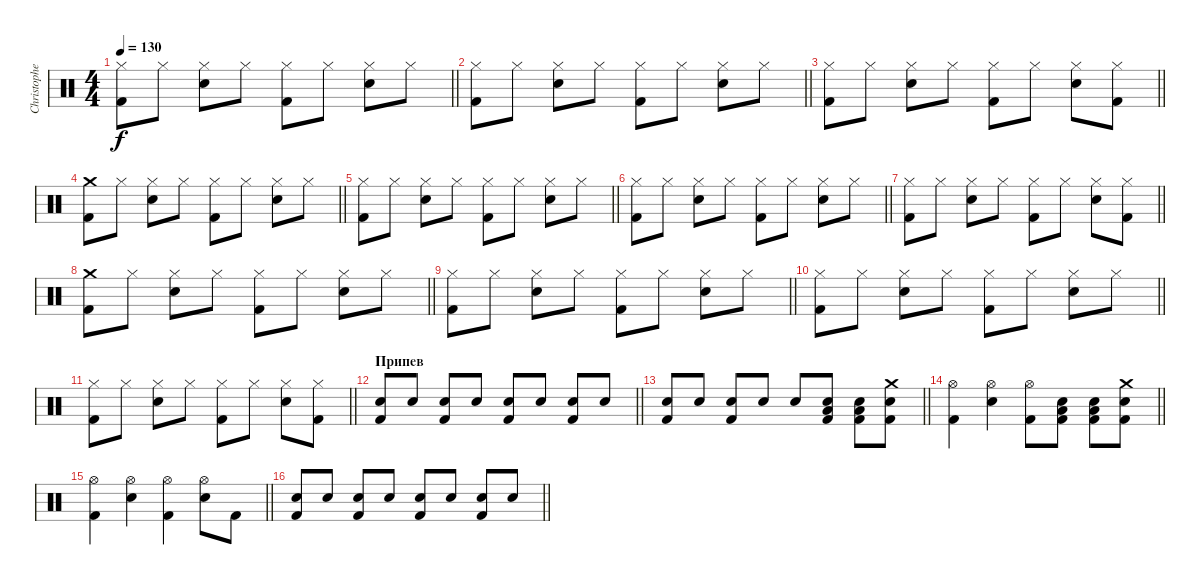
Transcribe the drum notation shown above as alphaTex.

\track ("Christopher Schneider" "Christophe") {instrument percussion}
\staff {score}
\articulation defaults
\ts (4 4)
\tempo 130
\clef neutral
\barLineRight lightlight
\ks c
("Hi-Hat (closed)" "Kick (hit) 2").8{dy f} "Hi-Hat (closed)".8 ("Hi-Hat (closed)" "Electric Snare (hit)").8 "Hi-Hat (closed)".8 ("Hi-Hat (closed)" "Kick (hit) 2").8 "Hi-Hat (closed)".8 ("Hi-Hat (closed)" "Electric Snare (hit)").8 "Hi-Hat (closed)".8 |
\barLineRight lightlight
("Hi-Hat (closed)" "Kick (hit) 2").8 "Hi-Hat (closed)".8 ("Hi-Hat (closed)" "Electric Snare (hit)").8 "Hi-Hat (closed)".8 ("Hi-Hat (closed)" "Kick (hit) 2").8 "Hi-Hat (closed)".8 ("Hi-Hat (closed)" "Electric Snare (hit)").8 "Hi-Hat (closed)".8 |
\barLineRight lightlight
("Hi-Hat (closed)" "Kick (hit) 2").8 "Hi-Hat (closed)".8 ("Hi-Hat (closed)" "Electric Snare (hit)").8 "Hi-Hat (closed)".8 ("Hi-Hat (closed)" "Kick (hit) 2").8 "Hi-Hat (closed)".8 ("Hi-Hat (closed)" "Electric Snare (hit)").8 ("Hi-Hat (closed)" "Kick (hit) 2").8 |
\barLineRight lightlight
("Crash medium (hit)" "Kick (hit) 2").8 "Hi-Hat (closed)".8 ("Hi-Hat (closed)" "Electric Snare (hit)").8 "Hi-Hat (closed)".8 ("Hi-Hat (closed)" "Kick (hit) 2").8 "Hi-Hat (closed)".8 ("Hi-Hat (closed)" "Electric Snare (hit)").8 "Hi-Hat (closed)".8 |
\barLineRight lightlight
("Hi-Hat (closed)" "Kick (hit) 2").8 "Hi-Hat (closed)".8 ("Hi-Hat (closed)" "Electric Snare (hit)").8 "Hi-Hat (closed)".8 ("Hi-Hat (closed)" "Kick (hit) 2").8 "Hi-Hat (closed)".8 ("Hi-Hat (closed)" "Electric Snare (hit)").8 "Hi-Hat (closed)".8 |
\barLineRight lightlight
("Hi-Hat (closed)" "Kick (hit) 2").8 "Hi-Hat (closed)".8 ("Hi-Hat (closed)" "Electric Snare (hit)").8 "Hi-Hat (closed)".8 ("Hi-Hat (closed)" "Kick (hit) 2").8 "Hi-Hat (closed)".8 ("Hi-Hat (closed)" "Electric Snare (hit)").8 "Hi-Hat (closed)".8 |
\barLineRight lightlight
("Hi-Hat (closed)" "Kick (hit) 2").8 "Hi-Hat (closed)".8 ("Hi-Hat (closed)" "Electric Snare (hit)").8 "Hi-Hat (closed)".8 ("Hi-Hat (closed)" "Kick (hit) 2").8 "Hi-Hat (closed)".8 ("Hi-Hat (closed)" "Electric Snare (hit)").8 ("Hi-Hat (closed)" "Kick (hit) 2").8 |
\barLineRight lightlight
("Crash medium (hit)" "Kick (hit) 2").8 "Hi-Hat (closed)".8 ("Hi-Hat (closed)" "Electric Snare (hit)").8 "Hi-Hat (closed)".8 ("Hi-Hat (closed)" "Kick (hit) 2").8 "Hi-Hat (closed)".8 ("Hi-Hat (closed)" "Electric Snare (hit)").8 "Hi-Hat (closed)".8 |
\barLineRight lightlight
("Hi-Hat (closed)" "Kick (hit) 2").8 "Hi-Hat (closed)".8 ("Hi-Hat (closed)" "Electric Snare (hit)").8 "Hi-Hat (closed)".8 ("Hi-Hat (closed)" "Kick (hit) 2").8 "Hi-Hat (closed)".8 ("Hi-Hat (closed)" "Electric Snare (hit)").8 "Hi-Hat (closed)".8 |
\barLineRight lightlight
("Hi-Hat (closed)" "Kick (hit) 2").8 "Hi-Hat (closed)".8 ("Hi-Hat (closed)" "Electric Snare (hit)").8 "Hi-Hat (closed)".8 ("Hi-Hat (closed)" "Kick (hit) 2").8 "Hi-Hat (closed)".8 ("Hi-Hat (closed)" "Electric Snare (hit)").8 "Hi-Hat (closed)".8 |
\barLineRight lightlight
("Hi-Hat (closed)" "Kick (hit) 2").8 "Hi-Hat (closed)".8 ("Hi-Hat (closed)" "Electric Snare (hit)").8 "Hi-Hat (closed)".8 ("Hi-Hat (closed)" "Kick (hit) 2").8 "Hi-Hat (closed)".8 ("Hi-Hat (closed)" "Electric Snare (hit)").8 ("Hi-Hat (closed)" "Kick (hit) 2").8 |
\section ("" "Припев")
\barLineRight lightlight
("Kick (hit) 2" "Electric Snare (hit)").8 "Electric Snare (hit)".8 ("Kick (hit) 2" "Electric Snare (hit)").8 "Electric Snare (hit)".8 ("Kick (hit) 2" "Electric Snare (hit)").8 "Electric Snare (hit)".8 ("Kick (hit) 2" "Electric Snare (hit)").8 "Electric Snare (hit)".8 |
\barLineRight lightlight
("Kick (hit) 2" "Electric Snare (hit)").8 "Electric Snare (hit)".8 ("Kick (hit) 2" "Electric Snare (hit)").8 "Electric Snare (hit)".8 "Electric Snare (hit)".8 ("Low Tom (hit)" "Electric Snare (hit)" "Kick (hit) 2").8 ("Low Tom (hit)" "Electric Snare (hit)" "Kick (hit) 2").8 ("Crash medium (hit)" "Electric Snare (hit)" "Kick (hit) 2").8 |
\barLineRight lightlight
("Hi-Hat (open)" "Kick (hit) 2").4 ("Hi-Hat (open)" "Electric Snare (hit)").4 ("Hi-Hat (open)" "Kick (hit) 2").8 ("Low Tom (hit)" "Electric Snare (hit)" "Kick (hit) 2").8 ("Low Tom (hit)" "Electric Snare (hit)" "Kick (hit) 2").8 ("Crash medium (hit)" "Electric Snare (hit)" "Kick (hit) 2").8 |
\barLineRight lightlight
("Hi-Hat (open)" "Kick (hit) 2").4 ("Hi-Hat (open)" "Electric Snare (hit)").4 ("Hi-Hat (open)" "Kick (hit) 2").4 ("Hi-Hat (open)" "Electric Snare (hit)").8 "Kick (hit) 2".8 |
\barLineRight lightlight
("Kick (hit) 2" "Electric Snare (hit)").8 "Electric Snare (hit)".8 ("Kick (hit) 2" "Electric Snare (hit)").8 "Electric Snare (hit)".8 ("Kick (hit) 2" "Electric Snare (hit)").8 "Electric Snare (hit)".8 ("Kick (hit) 2" "Electric Snare (hit)").8 "Electric Snare (hit)".8
